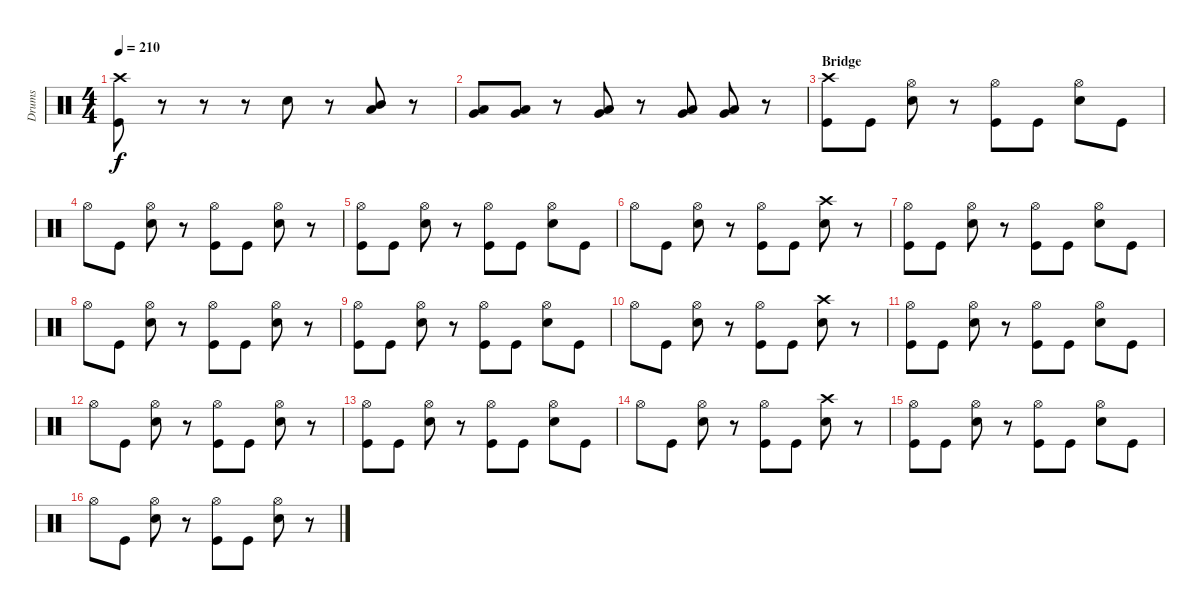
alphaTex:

\track ("Drums" "Drums") {instrument percussion}
\staff {score}
\articulation defaults
\ts (4 4)
\tempo 210
\clef neutral
\ks c
("Crash high (hit)" "Kick (hit)").8{dy f} r.8 r.8 r.8 "Snare (hit) 2".8 r.8 ("Mid Tom (hit)" "Low Tom (hit)").8 r.8 |
("Low Tom (hit)" "Very Low Tom (hit)").8 ("Low Tom (hit)" "Very Low Tom (hit)").8 r.8 ("Very Low Tom (hit)" "Low Floor Tom (hit)").8 r.8 ("Very Low Tom (hit)" "Low Floor Tom (hit)").8 ("Very Low Tom (hit)" "Low Floor Tom (hit)").8 r.8 |
\section ("" "Bridge")
("Crash high (hit)" "Kick (hit)").8 "Kick (hit)".8 ("Hi-Hat (open)" "Snare (hit) 2").8 r.8 ("Hi-Hat (open)" "Kick (hit)").8 "Kick (hit)".8 ("Hi-Hat (open)" "Snare (hit) 2").8 "Kick (hit)".8 |
"Hi-Hat (open)".8 "Kick (hit)".8 ("Hi-Hat (open)" "Snare (hit) 2").8 r.8 ("Hi-Hat (open)" "Kick (hit)").8 "Kick (hit)".8 ("Hi-Hat (open)" "Snare (hit) 2").8 r.8 |
("Hi-Hat (open)" "Kick (hit)").8 "Kick (hit)".8 ("Hi-Hat (open)" "Snare (hit) 2").8 r.8 ("Hi-Hat (open)" "Kick (hit)").8 "Kick (hit)".8 ("Hi-Hat (open)" "Snare (hit) 2").8 "Kick (hit)".8 |
"Hi-Hat (open)".8 "Kick (hit)".8 ("Hi-Hat (open)" "Snare (hit) 2").8 r.8 ("Hi-Hat (open)" "Kick (hit)").8 "Kick (hit)".8 ("Crash high (hit)" "Snare (hit) 2").8 r.8 |
("Hi-Hat (open)" "Kick (hit)").8 "Kick (hit)".8 ("Hi-Hat (open)" "Snare (hit) 2").8 r.8 ("Hi-Hat (open)" "Kick (hit)").8 "Kick (hit)".8 ("Hi-Hat (open)" "Snare (hit) 2").8 "Kick (hit)".8 |
"Hi-Hat (open)".8 "Kick (hit)".8 ("Hi-Hat (open)" "Snare (hit) 2").8 r.8 ("Hi-Hat (open)" "Kick (hit)").8 "Kick (hit)".8 ("Hi-Hat (open)" "Snare (hit) 2").8 r.8 |
("Hi-Hat (open)" "Kick (hit)").8 "Kick (hit)".8 ("Hi-Hat (open)" "Snare (hit) 2").8 r.8 ("Hi-Hat (open)" "Kick (hit)").8 "Kick (hit)".8 ("Hi-Hat (open)" "Snare (hit) 2").8 "Kick (hit)".8 |
"Hi-Hat (open)".8 "Kick (hit)".8 ("Hi-Hat (open)" "Snare (hit) 2").8 r.8 ("Hi-Hat (open)" "Kick (hit)").8 "Kick (hit)".8 ("Crash high (hit)" "Snare (hit) 2").8 r.8 |
("Hi-Hat (open)" "Kick (hit)").8 "Kick (hit)".8 ("Hi-Hat (open)" "Snare (hit) 2").8 r.8 ("Hi-Hat (open)" "Kick (hit)").8 "Kick (hit)".8 ("Hi-Hat (open)" "Snare (hit) 2").8 "Kick (hit)".8 |
"Hi-Hat (open)".8 "Kick (hit)".8 ("Hi-Hat (open)" "Snare (hit) 2").8 r.8 ("Hi-Hat (open)" "Kick (hit)").8 "Kick (hit)".8 ("Hi-Hat (open)" "Snare (hit) 2").8 r.8 |
("Hi-Hat (open)" "Kick (hit)").8 "Kick (hit)".8 ("Hi-Hat (open)" "Snare (hit) 2").8 r.8 ("Hi-Hat (open)" "Kick (hit)").8 "Kick (hit)".8 ("Hi-Hat (open)" "Snare (hit) 2").8 "Kick (hit)".8 |
"Hi-Hat (open)".8 "Kick (hit)".8 ("Hi-Hat (open)" "Snare (hit) 2").8 r.8 ("Hi-Hat (open)" "Kick (hit)").8 "Kick (hit)".8 ("Crash high (hit)" "Snare (hit) 2").8 r.8 |
("Hi-Hat (open)" "Kick (hit)").8 "Kick (hit)".8 ("Hi-Hat (open)" "Snare (hit) 2").8 r.8 ("Hi-Hat (open)" "Kick (hit)").8 "Kick (hit)".8 ("Hi-Hat (open)" "Snare (hit) 2").8 "Kick (hit)".8 |
"Hi-Hat (open)".8 "Kick (hit)".8 ("Hi-Hat (open)" "Snare (hit) 2").8 r.8 ("Hi-Hat (open)" "Kick (hit)").8 "Kick (hit)".8 ("Hi-Hat (open)" "Snare (hit) 2").8 r.8
